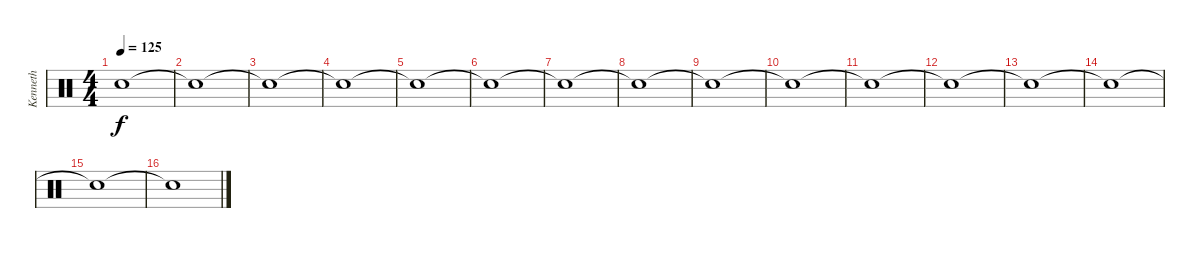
\track ("Kenneth" "Kenneth") {instrument percussion}
\staff {score}
\articulation defaults
\ts (4 4)
\tempo 125
\clef neutral
\ks c "Snare (hit)"{t}.1{dy f}
|
"Snare (hit)"{t}.1 |
"Snare (hit)"{t}.1 |
"Snare (hit)"{t}.1 |
"Snare (hit)"{t}.1 |
"Snare (hit)"{t}.1 |
"Snare (hit)"{t}.1 |
"Snare (hit)"{t}.1 |
"Snare (hit)"{t}.1 |
"Snare (hit)"{t}.1 |
"Snare (hit)"{t}.1 |
"Snare (hit)"{t}.1 |
"Snare (hit)"{t}.1 |
"Snare (hit)"{t}.1{volume 11} |
"Snare (hit)"{t}.1 |
"Snare (hit)"{t}.1
